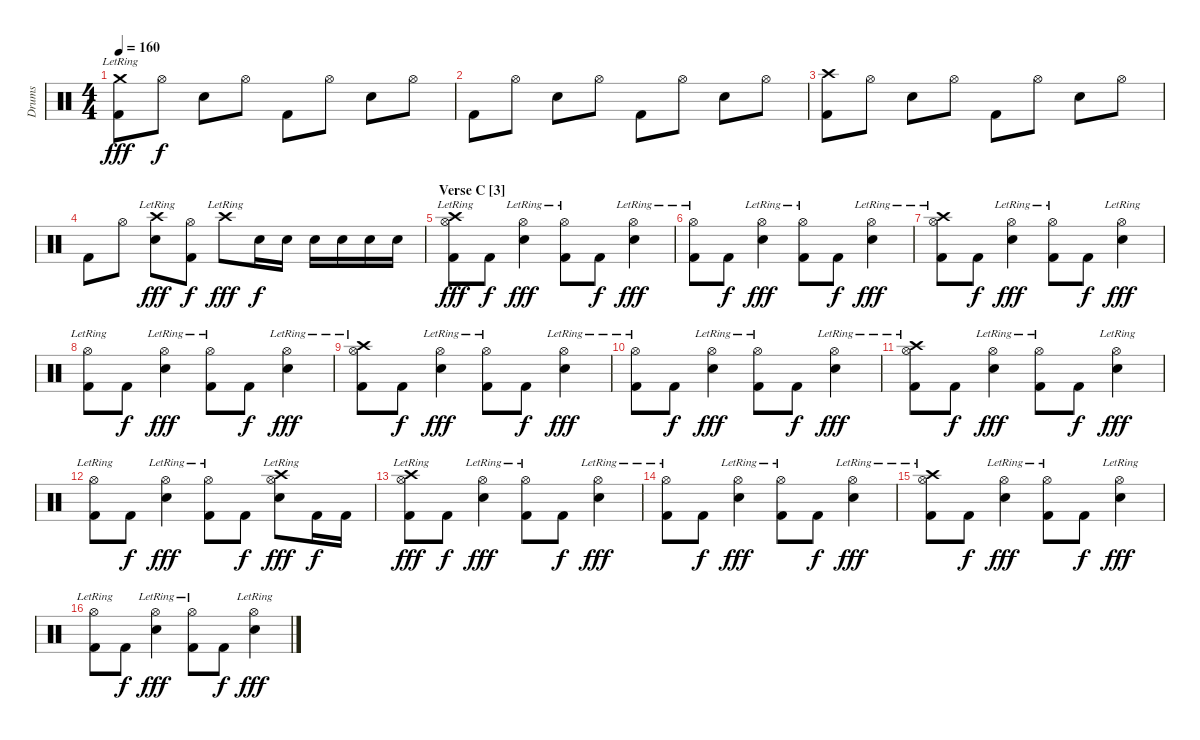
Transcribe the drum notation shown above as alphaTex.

\track ("Drums" "Drums") {instrument percussion}
\staff {score}
\articulation defaults
\ts (4 4)
\tempo 160
\clef neutral
\ks c
("Crash medium (hit)"{lr} "Kick (hit) 2").8{dy fff} "Hi-Hat (open)".8{dy f} "Electric Snare (hit)".8 "Hi-Hat (open)".8 "Kick (hit) 2".8 "Hi-Hat (open)".8 "Electric Snare (hit)".8 "Hi-Hat (open)".8 |
"Kick (hit) 2".8 "Hi-Hat (open)".8 "Electric Snare (hit)".8 "Hi-Hat (open)".8 "Kick (hit) 2".8 "Hi-Hat (open)".8 "Electric Snare (hit)".8 "Hi-Hat (open)".8 |
("Crash high (hit)" "Kick (hit) 2").8 "Hi-Hat (open)".8 "Electric Snare (hit)".8 "Hi-Hat (open)".8 "Kick (hit) 2".8 "Hi-Hat (open)".8 "Electric Snare (hit)".8 "Hi-Hat (open)".8 |
"Kick (hit) 2".8 "Hi-Hat (open)".8 ("Crash high (hit)"{lr} "Electric Snare (hit)").8{dy fff} ("Hi-Hat (open)" "Kick (hit) 2").8{dy f} "Crash high (hit)"{lr}.8{dy fff} "Electric Snare (hit)".16{dy f} "Electric Snare (hit)".16 "Electric Snare (hit)".16 "Electric Snare (hit)".16 "Electric Snare (hit)".16 "Electric Snare (hit)".16 |
\section ("" "Verse C [3]")
("Crash high (hit)" "Hi-Hat (open)"{lr} "Kick (hit) 2").8{dy fff} "Kick (hit) 2".8{dy f} ("Hi-Hat (open)"{lr} "Electric Snare (hit)").4{dy fff} ("Hi-Hat (open)"{lr} "Kick (hit) 2").8 "Kick (hit) 2".8{dy f} ("Hi-Hat (open)"{lr} "Electric Snare (hit)").4{dy fff} |
("Hi-Hat (open)"{lr} "Kick (hit) 2").8 "Kick (hit) 2".8{dy f} ("Hi-Hat (open)"{lr} "Electric Snare (hit)").4{dy fff} ("Hi-Hat (open)"{lr} "Kick (hit) 2").8 "Kick (hit) 2".8{dy f} ("Hi-Hat (open)"{lr} "Electric Snare (hit)").4{dy fff} |
("Crash high (hit)" "Hi-Hat (open)"{lr} "Kick (hit) 2").8 "Kick (hit) 2".8{dy f} ("Hi-Hat (open)"{lr} "Electric Snare (hit)").4{dy fff} ("Hi-Hat (open)"{lr} "Kick (hit) 2").8 "Kick (hit) 2".8{dy f} ("Hi-Hat (open)"{lr} "Electric Snare (hit)").4{dy fff} |
("Hi-Hat (open)"{lr} "Kick (hit) 2").8 "Kick (hit) 2".8{dy f} ("Hi-Hat (open)"{lr} "Electric Snare (hit)").4{dy fff} ("Hi-Hat (open)"{lr} "Kick (hit) 2").8 "Kick (hit) 2".8{dy f} ("Hi-Hat (open)"{lr} "Electric Snare (hit)").4{dy fff} |
("Crash high (hit)" "Hi-Hat (open)"{lr} "Kick (hit) 2").8 "Kick (hit) 2".8{dy f} ("Hi-Hat (open)"{lr} "Electric Snare (hit)").4{dy fff} ("Hi-Hat (open)"{lr} "Kick (hit) 2").8 "Kick (hit) 2".8{dy f} ("Hi-Hat (open)"{lr} "Electric Snare (hit)").4{dy fff} |
("Hi-Hat (open)"{lr} "Kick (hit) 2").8 "Kick (hit) 2".8{dy f} ("Hi-Hat (open)"{lr} "Electric Snare (hit)").4{dy fff} ("Hi-Hat (open)"{lr} "Kick (hit) 2").8 "Kick (hit) 2".8{dy f} ("Hi-Hat (open)"{lr} "Electric Snare (hit)").4{dy fff} |
("Crash high (hit)" "Hi-Hat (open)"{lr} "Kick (hit) 2").8 "Kick (hit) 2".8{dy f} ("Hi-Hat (open)"{lr} "Electric Snare (hit)").4{dy fff} ("Hi-Hat (open)"{lr} "Kick (hit) 2").8 "Kick (hit) 2".8{dy f} ("Hi-Hat (open)"{lr} "Electric Snare (hit)").4{dy fff} |
("Hi-Hat (open)"{lr} "Kick (hit) 2").8 "Kick (hit) 2".8{dy f} ("Hi-Hat (open)"{lr} "Electric Snare (hit)").4{dy fff} ("Hi-Hat (open)"{lr} "Kick (hit) 2").8 "Kick (hit) 2".8{dy f} ("Crash high (hit)" "Hi-Hat (open)"{lr} "Electric Snare (hit)").8{dy fff} "Kick (hit) 2".16{dy f} "Kick (hit) 2".16 |
("Crash high (hit)" "Hi-Hat (open)"{lr} "Kick (hit) 2").8{dy fff} "Kick (hit) 2".8{dy f} ("Hi-Hat (open)"{lr} "Electric Snare (hit)").4{dy fff} ("Hi-Hat (open)"{lr} "Kick (hit) 2").8 "Kick (hit) 2".8{dy f} ("Hi-Hat (open)"{lr} "Electric Snare (hit)").4{dy fff} |
("Hi-Hat (open)"{lr} "Kick (hit) 2").8 "Kick (hit) 2".8{dy f} ("Hi-Hat (open)"{lr} "Electric Snare (hit)").4{dy fff} ("Hi-Hat (open)"{lr} "Kick (hit) 2").8 "Kick (hit) 2".8{dy f} ("Hi-Hat (open)"{lr} "Electric Snare (hit)").4{dy fff} |
("Crash high (hit)" "Hi-Hat (open)"{lr} "Kick (hit) 2").8 "Kick (hit) 2".8{dy f} ("Hi-Hat (open)"{lr} "Electric Snare (hit)").4{dy fff} ("Hi-Hat (open)"{lr} "Kick (hit) 2").8 "Kick (hit) 2".8{dy f} ("Hi-Hat (open)"{lr} "Electric Snare (hit)").4{dy fff} |
("Hi-Hat (open)"{lr} "Kick (hit) 2").8 "Kick (hit) 2".8{dy f} ("Hi-Hat (open)"{lr} "Electric Snare (hit)").4{dy fff} ("Hi-Hat (open)"{lr} "Kick (hit) 2").8 "Kick (hit) 2".8{dy f} ("Hi-Hat (open)"{lr} "Electric Snare (hit)").4{dy fff}
